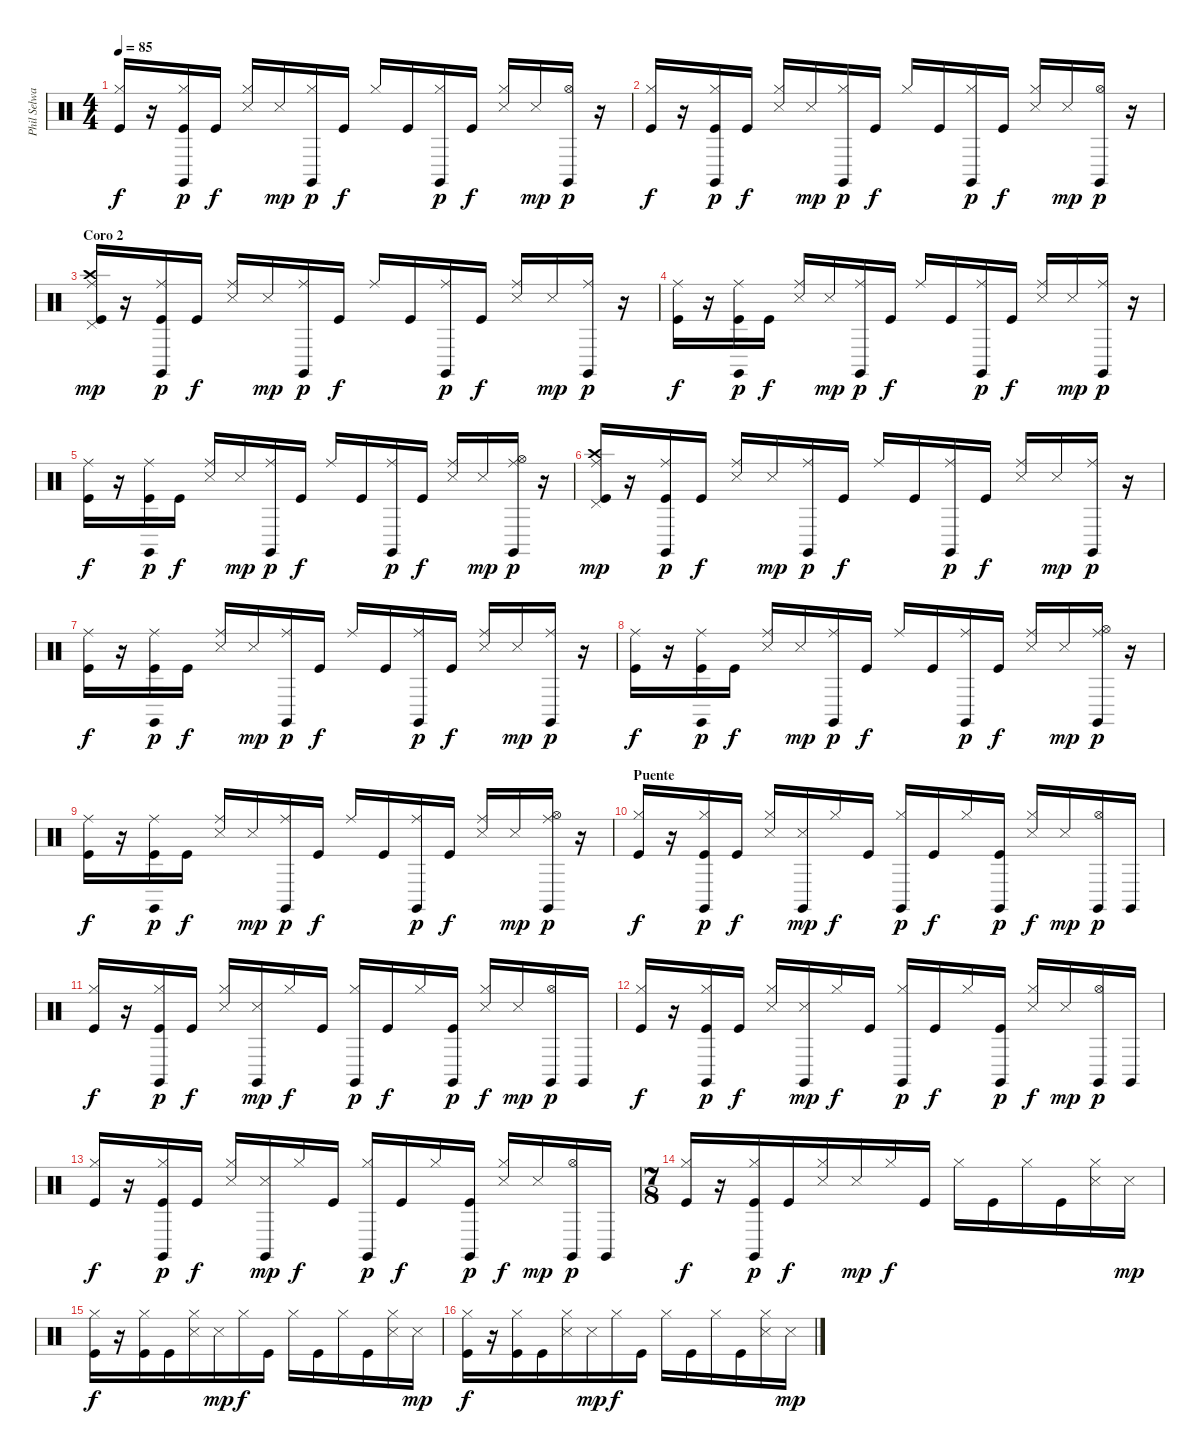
\track ("Phil Selway" "Phil Selwa") {instrument percussion}
\staff {score}
\articulation defaults
\ts (4 4)
\tempo 85
\clef neutral
\ks c
("Hi-Hat (closed)" "Kick (hit)").16{dy f} r.16 ("Hi-Hat (closed)" "Claves (hit)" "Kick (hit)").16{dy p} "Kick (hit)".16{dy f} ("Hi-Hat (closed)" "Snare (side stick) 3").16 "Snare (side stick) 3".16{dy mp} ("Hi-Hat (closed)" "Claves (hit)").16{dy p} "Kick (hit)".16{dy f} "Hi-Hat (closed)".16 "Kick (hit)".16 ("Hi-Hat (closed)" "Claves (hit)").16{dy p} "Kick (hit)".16{dy f} ("Hi-Hat (closed)" "Snare (side stick) 3").16 "Snare (side stick) 3".16{dy mp} ("Hi-Hat (open)" "Claves (hit)").16{dy p} r.16 |
("Hi-Hat (closed)" "Kick (hit)").16{dy f} r.16 ("Hi-Hat (closed)" "Claves (hit)" "Kick (hit)").16{dy p} "Kick (hit)".16{dy f} ("Hi-Hat (closed)" "Snare (side stick) 3").16 "Snare (side stick) 3".16{dy mp} ("Hi-Hat (closed)" "Claves (hit)").16{dy p} "Kick (hit)".16{dy f} "Hi-Hat (closed)".16 "Kick (hit)".16 ("Hi-Hat (closed)" "Claves (hit)").16{dy p} "Kick (hit)".16{dy f} ("Hi-Hat (closed)" "Snare (side stick) 3").16 "Snare (side stick) 3".16{dy mp} ("Hi-Hat (open)" "Claves (hit)").16{dy p} r.16 |
\section ("" "Coro 2")
("Ride (middle)" "Crash high (hit)" "Pedal Hi-Hat (hit)" "Kick (hit)").16{dy mp} r.16 ("Ride (middle)" "Claves (hit)" "Kick (hit)").16{dy p} "Kick (hit)".16{dy f} ("Ride (middle)" "Snare (side stick) 3").16 "Snare (side stick) 3".16{dy mp} ("Ride (middle)" "Claves (hit)").16{dy p} "Kick (hit)".16{dy f} "Ride (middle)".16 "Kick (hit)".16 ("Ride (middle)" "Claves (hit)").16{dy p} "Kick (hit)".16{dy f} ("Ride (middle)" "Snare (side stick) 3").16 "Snare (side stick) 3".16{dy mp} ("Ride (middle)" "Claves (hit)").16{dy p} r.16 |
("Ride (middle)" "Kick (hit)").16{dy f} r.16 ("Ride (middle)" "Claves (hit)" "Kick (hit)").16{dy p} "Kick (hit)".16{dy f} ("Ride (middle)" "Snare (side stick) 3").16 "Snare (side stick) 3".16{dy mp} ("Ride (middle)" "Claves (hit)").16{dy p} "Kick (hit)".16{dy f} "Ride (middle)".16 "Kick (hit)".16 ("Ride (middle)" "Claves (hit)").16{dy p} "Kick (hit)".16{dy f} ("Ride (middle)" "Snare (side stick) 3").16 "Snare (side stick) 3".16{dy mp} ("Ride (middle)" "Claves (hit)").16{dy p} r.16 |
("Ride (middle)" "Kick (hit)").16{dy f} r.16 ("Ride (middle)" "Claves (hit)" "Kick (hit)").16{dy p} "Kick (hit)".16{dy f} ("Ride (middle)" "Snare (side stick) 3").16 "Snare (side stick) 3".16{dy mp} ("Ride (middle)" "Claves (hit)").16{dy p} "Kick (hit)".16{dy f} "Ride (middle)".16 "Kick (hit)".16 ("Ride (middle)" "Claves (hit)").16{dy p} "Kick (hit)".16{dy f} ("Ride (middle)" "Snare (side stick) 3").16 "Snare (side stick) 3".16{dy mp} ("Ride (middle)" "Claves (hit)" "Hi-Hat (open)").16{dy p} r.16 |
("Ride (middle)" "Crash high (hit)" "Pedal Hi-Hat (hit)" "Kick (hit)").16{dy mp} r.16 ("Ride (middle)" "Claves (hit)" "Kick (hit)").16{dy p} "Kick (hit)".16{dy f} ("Ride (middle)" "Snare (side stick) 3").16 "Snare (side stick) 3".16{dy mp} ("Ride (middle)" "Claves (hit)").16{dy p} "Kick (hit)".16{dy f} "Ride (middle)".16 "Kick (hit)".16 ("Ride (middle)" "Claves (hit)").16{dy p} "Kick (hit)".16{dy f} ("Ride (middle)" "Snare (side stick) 3").16 "Snare (side stick) 3".16{dy mp} ("Ride (middle)" "Claves (hit)").16{dy p} r.16 |
("Ride (middle)" "Kick (hit)").16{dy f} r.16 ("Ride (middle)" "Claves (hit)" "Kick (hit)").16{dy p} "Kick (hit)".16{dy f} ("Ride (middle)" "Snare (side stick) 3").16 "Snare (side stick) 3".16{dy mp} ("Ride (middle)" "Claves (hit)").16{dy p} "Kick (hit)".16{dy f} "Ride (middle)".16 "Kick (hit)".16 ("Ride (middle)" "Claves (hit)").16{dy p} "Kick (hit)".16{dy f} ("Ride (middle)" "Snare (side stick) 3").16 "Snare (side stick) 3".16{dy mp} ("Ride (middle)" "Claves (hit)").16{dy p} r.16 |
("Ride (middle)" "Kick (hit)").16{dy f} r.16 ("Ride (middle)" "Claves (hit)" "Kick (hit)").16{dy p} "Kick (hit)".16{dy f} ("Ride (middle)" "Snare (side stick) 3").16 "Snare (side stick) 3".16{dy mp} ("Ride (middle)" "Claves (hit)").16{dy p} "Kick (hit)".16{dy f} "Ride (middle)".16 "Kick (hit)".16 ("Ride (middle)" "Claves (hit)").16{dy p} "Kick (hit)".16{dy f} ("Ride (middle)" "Snare (side stick) 3").16 "Snare (side stick) 3".16{dy mp} ("Ride (middle)" "Claves (hit)" "Hi-Hat (open)").16{dy p} r.16 |
("Ride (middle)" "Kick (hit)").16{dy f} r.16 ("Ride (middle)" "Claves (hit)" "Kick (hit)").16{dy p} "Kick (hit)".16{dy f} ("Ride (middle)" "Snare (side stick) 3").16 "Snare (side stick) 3".16{dy mp} ("Ride (middle)" "Claves (hit)").16{dy p} "Kick (hit)".16{dy f} "Ride (middle)".16 "Kick (hit)".16 ("Ride (middle)" "Claves (hit)").16{dy p} "Kick (hit)".16{dy f} ("Ride (middle)" "Snare (side stick) 3").16 "Snare (side stick) 3".16{dy mp} ("Ride (middle)" "Claves (hit)" "Hi-Hat (open)").16{dy p} r.16 |
\section ("" "Puente")
("Hi-Hat (closed)" "Kick (hit)").16{dy f} r.16 ("Hi-Hat (closed)" "Claves (hit)" "Kick (hit)").16{dy p} "Kick (hit)".16{dy f} ("Hi-Hat (closed)" "Snare (side stick) 3").16 ("Claves (hit)" "Snare (side stick) 3").16{dy mp} "Hi-Hat (closed)".16{dy f} "Kick (hit)".16 ("Hi-Hat (closed)" "Claves (hit)").16{dy p} "Kick (hit)".16{dy f} "Hi-Hat (closed)".16 ("Claves (hit)" "Kick (hit)").16{dy p} ("Hi-Hat (closed)" "Snare (side stick) 3").16{dy f} "Snare (side stick) 3".16{dy mp} ("Hi-Hat (open)" "Claves (hit)").16{dy p} "Claves (hit)".16 |
("Hi-Hat (closed)" "Kick (hit)").16{dy f} r.16 ("Hi-Hat (closed)" "Claves (hit)" "Kick (hit)").16{dy p} "Kick (hit)".16{dy f} ("Hi-Hat (closed)" "Snare (side stick) 3").16 ("Claves (hit)" "Snare (side stick) 3").16{dy mp} "Hi-Hat (closed)".16{dy f} "Kick (hit)".16 ("Hi-Hat (closed)" "Claves (hit)").16{dy p} "Kick (hit)".16{dy f} "Hi-Hat (closed)".16 ("Claves (hit)" "Kick (hit)").16{dy p} ("Hi-Hat (closed)" "Snare (side stick) 3").16{dy f} "Snare (side stick) 3".16{dy mp} ("Hi-Hat (open)" "Claves (hit)").16{dy p} "Claves (hit)".16 |
("Hi-Hat (closed)" "Kick (hit)").16{dy f} r.16 ("Hi-Hat (closed)" "Claves (hit)" "Kick (hit)").16{dy p} "Kick (hit)".16{dy f} ("Hi-Hat (closed)" "Snare (side stick) 3").16 ("Claves (hit)" "Snare (side stick) 3").16{dy mp} "Hi-Hat (closed)".16{dy f} "Kick (hit)".16 ("Hi-Hat (closed)" "Claves (hit)").16{dy p} "Kick (hit)".16{dy f} "Hi-Hat (closed)".16 ("Claves (hit)" "Kick (hit)").16{dy p} ("Hi-Hat (closed)" "Snare (side stick) 3").16{dy f} "Snare (side stick) 3".16{dy mp} ("Hi-Hat (open)" "Claves (hit)").16{dy p} "Claves (hit)".16 |
("Hi-Hat (closed)" "Kick (hit)").16{dy f} r.16 ("Hi-Hat (closed)" "Claves (hit)" "Kick (hit)").16{dy p} "Kick (hit)".16{dy f} ("Hi-Hat (closed)" "Snare (side stick) 3").16 ("Claves (hit)" "Snare (side stick) 3").16{dy mp} "Hi-Hat (closed)".16{dy f} "Kick (hit)".16 ("Hi-Hat (closed)" "Claves (hit)").16{dy p} "Kick (hit)".16{dy f} "Hi-Hat (closed)".16 ("Claves (hit)" "Kick (hit)").16{dy p} ("Hi-Hat (closed)" "Snare (side stick) 3").16{dy f} "Snare (side stick) 3".16{dy mp} ("Hi-Hat (open)" "Claves (hit)").16{dy p} "Claves (hit)".16 |
\ts (7 8)
("Hi-Hat (closed)" "Kick (hit)").16{dy f} r.16 ("Hi-Hat (closed)" "Claves (hit)" "Kick (hit)").16{dy p} "Kick (hit)".16{dy f} ("Hi-Hat (closed)" "Snare (side stick) 3").16 "Snare (side stick) 3".16{dy mp} "Hi-Hat (closed)".16{dy f} "Kick (hit)".16 "Hi-Hat (closed)".16 "Kick (hit)".16 "Hi-Hat (closed)".16 "Kick (hit)".16 ("Hi-Hat (closed)" "Snare (side stick) 3").16 "Snare (side stick) 3".16{dy mp} |
("Hi-Hat (closed)" "Kick (hit)").16{dy f} r.16 ("Hi-Hat (closed)" "Kick (hit)").16 "Kick (hit)".16 ("Hi-Hat (closed)" "Snare (side stick) 3").16 "Snare (side stick) 3".16{dy mp} "Hi-Hat (closed)".16{dy f} "Kick (hit)".16 "Hi-Hat (closed)".16 "Kick (hit)".16 "Hi-Hat (closed)".16 "Kick (hit)".16 ("Hi-Hat (closed)" "Snare (side stick) 3").16 "Snare (side stick) 3".16{dy mp} |
("Hi-Hat (closed)" "Kick (hit)").16{dy f} r.16 ("Hi-Hat (closed)" "Kick (hit)").16 "Kick (hit)".16 ("Hi-Hat (closed)" "Snare (side stick) 3").16 "Snare (side stick) 3".16{dy mp} "Hi-Hat (closed)".16{dy f} "Kick (hit)".16 "Hi-Hat (closed)".16 "Kick (hit)".16 "Hi-Hat (closed)".16 "Kick (hit)".16 ("Hi-Hat (closed)" "Snare (side stick) 3").16 "Snare (side stick) 3".16{dy mp}
